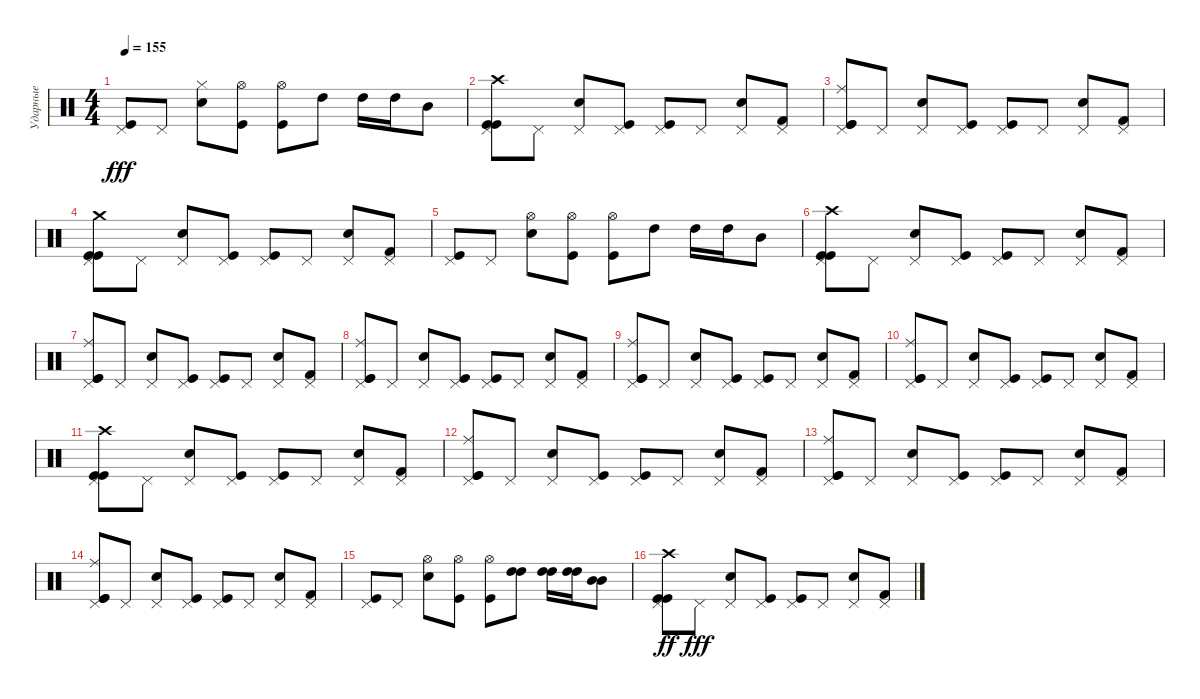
\track ("Ударные" "Ударные") {instrument percussion}
\staff
\articulation defaults
\ts (4 4)
\tempo 155
\clef neutral
\ks c
("Kick (hit)" "Pedal Hi-Hat (hit)").8{dy fff} "Pedal Hi-Hat (hit)".8 ("Snare (hit) 2" "Hi-Hat (closed)").8 ("Kick (hit)" "Hi-Hat (open)").8 ("Kick (hit)" "Hi-Hat (open)").8 "High Tom (hit)".8 "High Tom (hit)".16 "High Tom (hit)".16 "Mid Tom (hit)".8 |
("Kick (hit)" "Pedal Hi-Hat (hit)" "Kick (hit)" "Crash high (hit)").8 "Pedal Hi-Hat (hit)".8 ("Pedal Hi-Hat (hit)" "Snare (hit) 2").8 ("Pedal Hi-Hat (hit)" "Kick (hit)").8 ("Pedal Hi-Hat (hit)" "Kick (hit)").8 "Pedal Hi-Hat (hit)".8 ("Snare (hit) 2" "Pedal Hi-Hat (hit)").8 ("Kick (hit) 2" "Pedal Hi-Hat (hit)").8 |
("Kick (hit)" "Pedal Hi-Hat (hit)" "Kick (hit)" "Ride (middle)").8 "Pedal Hi-Hat (hit)".8 ("Pedal Hi-Hat (hit)" "Snare (hit) 2").8 ("Pedal Hi-Hat (hit)" "Kick (hit)").8 ("Pedal Hi-Hat (hit)" "Kick (hit)").8 "Pedal Hi-Hat (hit)".8 ("Snare (hit) 2" "Pedal Hi-Hat (hit)").8 ("Kick (hit) 2" "Pedal Hi-Hat (hit)").8 |
("Kick (hit)" "Pedal Hi-Hat (hit)" "Kick (hit)" "Crash medium (hit)").8 "Pedal Hi-Hat (hit)".8 ("Pedal Hi-Hat (hit)" "Snare (hit) 2").8 ("Pedal Hi-Hat (hit)" "Kick (hit)").8 ("Pedal Hi-Hat (hit)" "Kick (hit)").8 "Pedal Hi-Hat (hit)".8 ("Snare (hit) 2" "Pedal Hi-Hat (hit)").8 ("Kick (hit) 2" "Pedal Hi-Hat (hit)").8 |
("Kick (hit)" "Pedal Hi-Hat (hit)").8 "Pedal Hi-Hat (hit)".8 ("Snare (hit) 2" "Hi-Hat (open)").8 ("Kick (hit)" "Hi-Hat (open)").8 ("Kick (hit)" "Hi-Hat (open)").8 "High Tom (hit)".8 "High Tom (hit)".16 "High Tom (hit)".16 "Mid Tom (hit)".8 |
("Kick (hit)" "Pedal Hi-Hat (hit)" "Kick (hit)" "Crash high (hit)").8 "Pedal Hi-Hat (hit)".8 ("Pedal Hi-Hat (hit)" "Snare (hit) 2").8 ("Pedal Hi-Hat (hit)" "Kick (hit)").8 ("Pedal Hi-Hat (hit)" "Kick (hit)").8 "Pedal Hi-Hat (hit)".8 ("Snare (hit) 2" "Pedal Hi-Hat (hit)").8 ("Kick (hit) 2" "Pedal Hi-Hat (hit)").8 |
("Kick (hit)" "Pedal Hi-Hat (hit)" "Kick (hit)" "Ride (middle)").8 "Pedal Hi-Hat (hit)".8 ("Pedal Hi-Hat (hit)" "Snare (hit) 2").8 ("Pedal Hi-Hat (hit)" "Kick (hit)").8 ("Pedal Hi-Hat (hit)" "Kick (hit)").8 "Pedal Hi-Hat (hit)".8 ("Snare (hit) 2" "Pedal Hi-Hat (hit)").8 ("Kick (hit) 2" "Pedal Hi-Hat (hit)").8 |
("Kick (hit)" "Pedal Hi-Hat (hit)" "Kick (hit)" "Ride (middle)").8 "Pedal Hi-Hat (hit)".8 ("Pedal Hi-Hat (hit)" "Snare (hit) 2").8 ("Pedal Hi-Hat (hit)" "Kick (hit)").8 ("Pedal Hi-Hat (hit)" "Kick (hit)").8 "Pedal Hi-Hat (hit)".8 ("Snare (hit) 2" "Pedal Hi-Hat (hit)").8 ("Kick (hit) 2" "Pedal Hi-Hat (hit)").8 |
("Kick (hit)" "Pedal Hi-Hat (hit)" "Kick (hit)" "Ride (middle)").8 "Pedal Hi-Hat (hit)".8 ("Pedal Hi-Hat (hit)" "Snare (hit) 2").8 ("Pedal Hi-Hat (hit)" "Kick (hit)").8 ("Pedal Hi-Hat (hit)" "Kick (hit)").8 "Pedal Hi-Hat (hit)".8 ("Snare (hit) 2" "Pedal Hi-Hat (hit)").8 ("Kick (hit) 2" "Pedal Hi-Hat (hit)").8 |
("Kick (hit)" "Pedal Hi-Hat (hit)" "Kick (hit)" "Ride (middle)").8 "Pedal Hi-Hat (hit)".8 ("Pedal Hi-Hat (hit)" "Snare (hit) 2").8 ("Pedal Hi-Hat (hit)" "Kick (hit)").8 ("Pedal Hi-Hat (hit)" "Kick (hit)").8 "Pedal Hi-Hat (hit)".8 ("Snare (hit) 2" "Pedal Hi-Hat (hit)").8 ("Kick (hit) 2" "Pedal Hi-Hat (hit)").8 |
("Kick (hit)" "Pedal Hi-Hat (hit)" "Kick (hit)" "Crash high (hit)").8 "Pedal Hi-Hat (hit)".8 ("Pedal Hi-Hat (hit)" "Snare (hit) 2").8 ("Pedal Hi-Hat (hit)" "Kick (hit)").8 ("Pedal Hi-Hat (hit)" "Kick (hit)").8 "Pedal Hi-Hat (hit)".8 ("Snare (hit) 2" "Pedal Hi-Hat (hit)").8 ("Kick (hit) 2" "Pedal Hi-Hat (hit)").8 |
("Kick (hit)" "Pedal Hi-Hat (hit)" "Kick (hit)" "Ride (middle)").8 "Pedal Hi-Hat (hit)".8 ("Pedal Hi-Hat (hit)" "Snare (hit) 2").8 ("Pedal Hi-Hat (hit)" "Kick (hit)").8 ("Pedal Hi-Hat (hit)" "Kick (hit)").8 "Pedal Hi-Hat (hit)".8 ("Snare (hit) 2" "Pedal Hi-Hat (hit)").8 ("Kick (hit) 2" "Pedal Hi-Hat (hit)").8 |
("Kick (hit)" "Pedal Hi-Hat (hit)" "Kick (hit)" "Ride (middle)").8 "Pedal Hi-Hat (hit)".8 ("Pedal Hi-Hat (hit)" "Snare (hit) 2").8 ("Pedal Hi-Hat (hit)" "Kick (hit)").8 ("Pedal Hi-Hat (hit)" "Kick (hit)").8 "Pedal Hi-Hat (hit)".8 ("Snare (hit) 2" "Pedal Hi-Hat (hit)").8 ("Kick (hit) 2" "Pedal Hi-Hat (hit)").8 |
("Kick (hit)" "Pedal Hi-Hat (hit)" "Kick (hit)" "Ride (middle)").8 "Pedal Hi-Hat (hit)".8 ("Pedal Hi-Hat (hit)" "Snare (hit) 2").8 ("Pedal Hi-Hat (hit)" "Kick (hit)").8 ("Pedal Hi-Hat (hit)" "Kick (hit)").8 "Pedal Hi-Hat (hit)".8 ("Snare (hit) 2" "Pedal Hi-Hat (hit)").8 ("Kick (hit) 2" "Pedal Hi-Hat (hit)").8 |
("Kick (hit)" "Pedal Hi-Hat (hit)").8 "Pedal Hi-Hat (hit)".8 ("Snare (hit) 2" "Hi-Hat (open)").8 ("Kick (hit)" "Hi-Hat (open)").8 ("Kick (hit)" "Hi-Hat (open)").8 ("High Tom (hit)" "High Tom (hit)").8 ("High Tom (hit)" "High Tom (hit)").16 ("High Tom (hit)" "High Tom (hit)").16 ("Mid Tom (hit)" "Mid Tom (hit)").8 |
("Kick (hit)" "Pedal Hi-Hat (hit)" "Kick (hit)" "Crash high (hit)").8{dy ff} "Pedal Hi-Hat (hit)".8{dy fff} ("Pedal Hi-Hat (hit)" "Snare (hit) 2").8 ("Pedal Hi-Hat (hit)" "Kick (hit)").8 ("Pedal Hi-Hat (hit)" "Kick (hit)").8 "Pedal Hi-Hat (hit)".8 ("Snare (hit) 2" "Pedal Hi-Hat (hit)").8 ("Kick (hit) 2" "Pedal Hi-Hat (hit)").8
